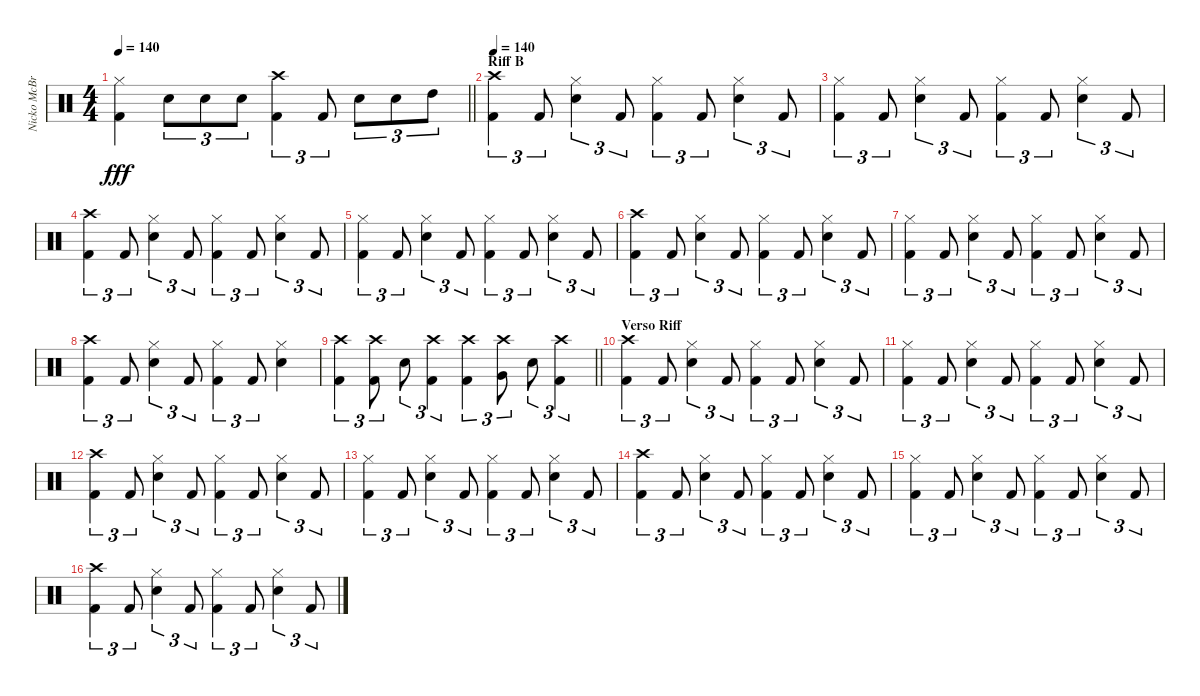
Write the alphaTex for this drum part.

\track ("Nicko McBrain" "Nicko McBr") {instrument percussion}
\staff {score}
\articulation defaults
\ts (4 4)
\tempo 140
\clef neutral
\barLineRight lightlight
\ks c
("Hi-Hat (closed)" "Kick (hit) 2").4{dy fff} "Snare (hit) 2".8{tu (3 2)} "Snare (hit) 2".8{tu (3 2)} "Snare (hit) 2".8{tu (3 2)} ("Crash high (hit)" "Kick (hit) 2").4{tu (3 2)} "Kick (hit) 2".8{tu (3 2)} "Snare (hit) 2".8{tu (3 2)} "Snare (hit) 2".8{tu (3 2)} "High Tom (hit)".8{tu (3 2)} |
\section ("" "Riff B")
\tempo 140
("Crash high (hit)" "Kick (hit) 2").4{tu (3 2)} "Kick (hit) 2".8{tu (3 2)} ("Hi-Hat (closed)" "Snare (hit) 2").4{tu (3 2)} "Kick (hit) 2".8{tu (3 2)} ("Kick (hit) 2" "Hi-Hat (closed)").4{tu (3 2)} "Kick (hit) 2".8{tu (3 2)} ("Hi-Hat (closed)" "Snare (hit) 2").4{tu (3 2)} "Kick (hit) 2".8{tu (3 2)} |
("Kick (hit) 2" "Hi-Hat (closed)").4{tu (3 2)} "Kick (hit) 2".8{tu (3 2)} ("Hi-Hat (closed)" "Snare (hit) 2").4{tu (3 2)} "Kick (hit) 2".8{tu (3 2)} ("Kick (hit) 2" "Hi-Hat (closed)").4{tu (3 2)} "Kick (hit) 2".8{tu (3 2)} ("Hi-Hat (closed)" "Snare (hit) 2").4{tu (3 2)} "Kick (hit) 2".8{tu (3 2)} |
("Crash high (hit)" "Kick (hit) 2").4{tu (3 2)} "Kick (hit) 2".8{tu (3 2)} ("Hi-Hat (closed)" "Snare (hit) 2").4{tu (3 2)} "Kick (hit) 2".8{tu (3 2)} ("Kick (hit) 2" "Hi-Hat (closed)").4{tu (3 2)} "Kick (hit) 2".8{tu (3 2)} ("Hi-Hat (closed)" "Snare (hit) 2").4{tu (3 2)} "Kick (hit) 2".8{tu (3 2)} |
("Kick (hit) 2" "Hi-Hat (closed)").4{tu (3 2)} "Kick (hit) 2".8{tu (3 2)} ("Hi-Hat (closed)" "Snare (hit) 2").4{tu (3 2)} "Kick (hit) 2".8{tu (3 2)} ("Kick (hit) 2" "Hi-Hat (closed)").4{tu (3 2)} "Kick (hit) 2".8{tu (3 2)} ("Hi-Hat (closed)" "Snare (hit) 2").4{tu (3 2)} "Kick (hit) 2".8{tu (3 2)} |
("Crash high (hit)" "Kick (hit) 2").4{tu (3 2)} "Kick (hit) 2".8{tu (3 2)} ("Hi-Hat (closed)" "Snare (hit) 2").4{tu (3 2)} "Kick (hit) 2".8{tu (3 2)} ("Kick (hit) 2" "Hi-Hat (closed)").4{tu (3 2)} "Kick (hit) 2".8{tu (3 2)} ("Hi-Hat (closed)" "Snare (hit) 2").4{tu (3 2)} "Kick (hit) 2".8{tu (3 2)} |
("Kick (hit) 2" "Hi-Hat (closed)").4{tu (3 2)} "Kick (hit) 2".8{tu (3 2)} ("Hi-Hat (closed)" "Snare (hit) 2").4{tu (3 2)} "Kick (hit) 2".8{tu (3 2)} ("Kick (hit) 2" "Hi-Hat (closed)").4{tu (3 2)} "Kick (hit) 2".8{tu (3 2)} ("Hi-Hat (closed)" "Snare (hit) 2").4{tu (3 2)} "Kick (hit) 2".8{tu (3 2)} |
("Crash high (hit)" "Kick (hit) 2").4{tu (3 2)} "Kick (hit) 2".8{tu (3 2)} ("Hi-Hat (closed)" "Snare (hit) 2").4{tu (3 2)} "Kick (hit) 2".8{tu (3 2)} ("Kick (hit) 2" "Hi-Hat (closed)").4{tu (3 2)} "Kick (hit) 2".8{tu (3 2)} ("Hi-Hat (closed)" "Snare (hit) 2").4 |
\barLineRight lightlight
("Kick (hit) 2" "Crash high (hit)").4{tu (3 2)} ("Kick (hit) 2" "Crash high (hit)").8{tu (3 2)} "Snare (hit) 2".8{tu (3 2)} ("Kick (hit) 2" "Crash high (hit)").4{tu (3 2)} ("Kick (hit) 2" "Crash high (hit)").4{tu (3 2)} ("Very Low Tom (hit)" "Crash high (hit)").8{tu (3 2)} "Snare (hit) 2".8{tu (3 2)} ("Kick (hit) 2" "Crash high (hit)").4{tu (3 2)} |
\section ("" "Verso Riff")
("Crash high (hit)" "Kick (hit) 2").4{tu (3 2)} "Kick (hit) 2".8{tu (3 2)} ("Hi-Hat (closed)" "Snare (hit) 2").4{tu (3 2)} "Kick (hit) 2".8{tu (3 2)} ("Kick (hit) 2" "Hi-Hat (closed)").4{tu (3 2)} "Kick (hit) 2".8{tu (3 2)} ("Hi-Hat (closed)" "Snare (hit) 2").4{tu (3 2)} "Kick (hit) 2".8{tu (3 2)} |
("Kick (hit) 2" "Hi-Hat (closed)").4{tu (3 2)} "Kick (hit) 2".8{tu (3 2)} ("Hi-Hat (closed)" "Snare (hit) 2").4{tu (3 2)} "Kick (hit) 2".8{tu (3 2)} ("Kick (hit) 2" "Hi-Hat (closed)").4{tu (3 2)} "Kick (hit) 2".8{tu (3 2)} ("Hi-Hat (closed)" "Snare (hit) 2").4{tu (3 2)} "Kick (hit) 2".8{tu (3 2)} |
("Crash high (hit)" "Kick (hit) 2").4{tu (3 2)} "Kick (hit) 2".8{tu (3 2)} ("Hi-Hat (closed)" "Snare (hit) 2").4{tu (3 2)} "Kick (hit) 2".8{tu (3 2)} ("Kick (hit) 2" "Hi-Hat (closed)").4{tu (3 2)} "Kick (hit) 2".8{tu (3 2)} ("Hi-Hat (closed)" "Snare (hit) 2").4{tu (3 2)} "Kick (hit) 2".8{tu (3 2)} |
("Kick (hit) 2" "Hi-Hat (closed)").4{tu (3 2)} "Kick (hit) 2".8{tu (3 2)} ("Hi-Hat (closed)" "Snare (hit) 2").4{tu (3 2)} "Kick (hit) 2".8{tu (3 2)} ("Kick (hit) 2" "Hi-Hat (closed)").4{tu (3 2)} "Kick (hit) 2".8{tu (3 2)} ("Hi-Hat (closed)" "Snare (hit) 2").4{tu (3 2)} "Kick (hit) 2".8{tu (3 2)} |
("Crash high (hit)" "Kick (hit) 2").4{tu (3 2)} "Kick (hit) 2".8{tu (3 2)} ("Hi-Hat (closed)" "Snare (hit) 2").4{tu (3 2)} "Kick (hit) 2".8{tu (3 2)} ("Kick (hit) 2" "Hi-Hat (closed)").4{tu (3 2)} "Kick (hit) 2".8{tu (3 2)} ("Hi-Hat (closed)" "Snare (hit) 2").4{tu (3 2)} "Kick (hit) 2".8{tu (3 2)} |
("Kick (hit) 2" "Hi-Hat (closed)").4{tu (3 2)} "Kick (hit) 2".8{tu (3 2)} ("Hi-Hat (closed)" "Snare (hit) 2").4{tu (3 2)} "Kick (hit) 2".8{tu (3 2)} ("Kick (hit) 2" "Hi-Hat (closed)").4{tu (3 2)} "Kick (hit) 2".8{tu (3 2)} ("Hi-Hat (closed)" "Snare (hit) 2").4{tu (3 2)} "Kick (hit) 2".8{tu (3 2)} |
("Crash high (hit)" "Kick (hit) 2").4{tu (3 2)} "Kick (hit) 2".8{tu (3 2)} ("Hi-Hat (closed)" "Snare (hit) 2").4{tu (3 2)} "Kick (hit) 2".8{tu (3 2)} ("Kick (hit) 2" "Hi-Hat (closed)").4{tu (3 2)} "Kick (hit) 2".8{tu (3 2)} ("Hi-Hat (closed)" "Snare (hit) 2").4{tu (3 2)} "Kick (hit) 2".8{tu (3 2)}
